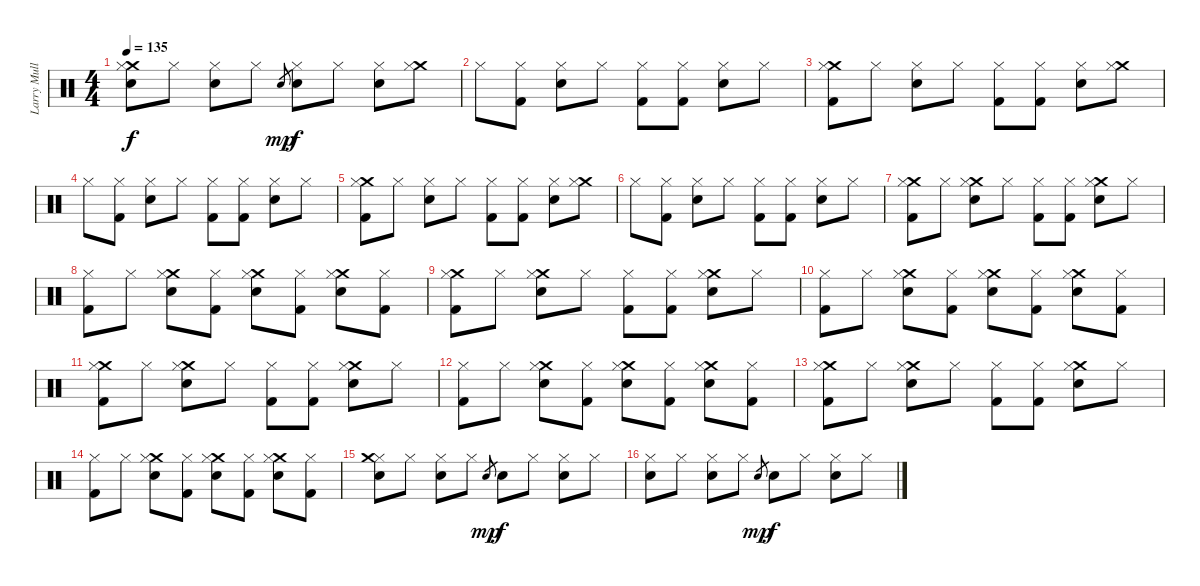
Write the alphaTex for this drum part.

\track ("Larry Mullen Jr." "Larry Mull") {instrument percussion}
\staff {score}
\articulation defaults
\ts (4 4)
\tempo 135
\clef neutral
\ks c
("Electric Snare (hit)" "Crash medium (hit)" "Hi-Hat (closed)").8{dy f} "Hi-Hat (closed)".8 ("Electric Snare (hit)" "Hi-Hat (closed)").8 "Hi-Hat (closed)".8 "Electric Snare (hit)".8{gr dy mp} ("Electric Snare (hit)" "Hi-Hat (closed)").8{dy f} "Hi-Hat (closed)".8 ("Electric Snare (hit)" "Hi-Hat (closed)").8 ("Crash medium (hit)" "Hi-Hat (closed)").8 |
"Hi-Hat (closed)".8 ("Kick (hit) 2" "Hi-Hat (closed)").8 ("Electric Snare (hit)" "Hi-Hat (closed)").8 "Hi-Hat (closed)".8 ("Kick (hit) 2" "Hi-Hat (closed)").8 ("Kick (hit) 2" "Hi-Hat (closed)").8 ("Electric Snare (hit)" "Hi-Hat (closed)").8 "Hi-Hat (closed)".8 |
("Kick (hit) 2" "Crash medium (hit)" "Hi-Hat (closed)").8 "Hi-Hat (closed)".8 ("Electric Snare (hit)" "Hi-Hat (closed)").8 "Hi-Hat (closed)".8 ("Kick (hit) 2" "Hi-Hat (closed)").8 ("Kick (hit) 2" "Hi-Hat (closed)").8 ("Electric Snare (hit)" "Hi-Hat (closed)").8 ("Crash medium (hit)" "Hi-Hat (closed)").8 |
"Hi-Hat (closed)".8 ("Kick (hit) 2" "Hi-Hat (closed)").8 ("Electric Snare (hit)" "Hi-Hat (closed)").8 "Hi-Hat (closed)".8 ("Kick (hit) 2" "Hi-Hat (closed)").8 ("Kick (hit) 2" "Hi-Hat (closed)").8 ("Electric Snare (hit)" "Hi-Hat (closed)").8 "Hi-Hat (closed)".8 |
("Kick (hit) 2" "Crash medium (hit)" "Hi-Hat (closed)").8 "Hi-Hat (closed)".8 ("Electric Snare (hit)" "Hi-Hat (closed)").8 "Hi-Hat (closed)".8 ("Kick (hit) 2" "Hi-Hat (closed)").8 ("Kick (hit) 2" "Hi-Hat (closed)").8 ("Electric Snare (hit)" "Hi-Hat (closed)").8 ("Crash medium (hit)" "Hi-Hat (closed)").8 |
"Hi-Hat (closed)".8 ("Kick (hit) 2" "Hi-Hat (closed)").8 ("Electric Snare (hit)" "Hi-Hat (closed)").8 "Hi-Hat (closed)".8 ("Kick (hit) 2" "Hi-Hat (closed)").8 ("Kick (hit) 2" "Hi-Hat (closed)").8 ("Electric Snare (hit)" "Hi-Hat (closed)").8 "Hi-Hat (closed)".8 |
("Kick (hit) 2" "Crash medium (hit)" "Hi-Hat (closed)").8 "Hi-Hat (closed)".8 ("Electric Snare (hit)" "Crash medium (hit)" "Hi-Hat (closed)").8 "Hi-Hat (closed)".8 ("Kick (hit) 2" "Hi-Hat (closed)").8 ("Kick (hit) 2" "Hi-Hat (closed)").8 ("Electric Snare (hit)" "Crash medium (hit)" "Hi-Hat (closed)").8 "Hi-Hat (closed)".8 |
("Kick (hit) 2" "Hi-Hat (closed)").8 "Hi-Hat (closed)".8 ("Electric Snare (hit)" "Crash medium (hit)" "Hi-Hat (closed)").8 ("Kick (hit) 2" "Hi-Hat (closed)").8 ("Electric Snare (hit)" "Crash medium (hit)" "Hi-Hat (closed)").8 ("Kick (hit) 2" "Hi-Hat (closed)").8 ("Electric Snare (hit)" "Crash medium (hit)" "Hi-Hat (closed)").8 ("Kick (hit) 2" "Hi-Hat (closed)").8 |
("Kick (hit) 2" "Crash medium (hit)" "Hi-Hat (closed)").8 "Hi-Hat (closed)".8 ("Electric Snare (hit)" "Crash medium (hit)" "Hi-Hat (closed)").8 "Hi-Hat (closed)".8 ("Kick (hit) 2" "Hi-Hat (closed)").8 ("Kick (hit) 2" "Hi-Hat (closed)").8 ("Electric Snare (hit)" "Crash medium (hit)" "Hi-Hat (closed)").8 "Hi-Hat (closed)".8 |
("Kick (hit) 2" "Hi-Hat (closed)").8 "Hi-Hat (closed)".8 ("Electric Snare (hit)" "Crash medium (hit)" "Hi-Hat (closed)").8 ("Kick (hit) 2" "Hi-Hat (closed)").8 ("Electric Snare (hit)" "Crash medium (hit)" "Hi-Hat (closed)").8 ("Kick (hit) 2" "Hi-Hat (closed)").8 ("Electric Snare (hit)" "Crash medium (hit)" "Hi-Hat (closed)").8 ("Kick (hit) 2" "Hi-Hat (closed)").8 |
("Kick (hit) 2" "Crash medium (hit)" "Hi-Hat (closed)").8 "Hi-Hat (closed)".8 ("Electric Snare (hit)" "Crash medium (hit)" "Hi-Hat (closed)").8 "Hi-Hat (closed)".8 ("Kick (hit) 2" "Hi-Hat (closed)").8 ("Kick (hit) 2" "Hi-Hat (closed)").8 ("Electric Snare (hit)" "Crash medium (hit)" "Hi-Hat (closed)").8 "Hi-Hat (closed)".8 |
("Kick (hit) 2" "Hi-Hat (closed)").8 "Hi-Hat (closed)".8 ("Electric Snare (hit)" "Crash medium (hit)" "Hi-Hat (closed)").8 ("Kick (hit) 2" "Hi-Hat (closed)").8 ("Electric Snare (hit)" "Crash medium (hit)" "Hi-Hat (closed)").8 ("Kick (hit) 2" "Hi-Hat (closed)").8 ("Electric Snare (hit)" "Crash medium (hit)" "Hi-Hat (closed)").8 ("Kick (hit) 2" "Hi-Hat (closed)").8 |
("Kick (hit) 2" "Crash medium (hit)" "Hi-Hat (closed)").8 "Hi-Hat (closed)".8 ("Electric Snare (hit)" "Crash medium (hit)" "Hi-Hat (closed)").8 "Hi-Hat (closed)".8 ("Kick (hit) 2" "Hi-Hat (closed)").8 ("Kick (hit) 2" "Hi-Hat (closed)").8 ("Electric Snare (hit)" "Crash medium (hit)" "Hi-Hat (closed)").8 "Hi-Hat (closed)".8 |
("Kick (hit) 2" "Hi-Hat (closed)").8 "Hi-Hat (closed)".8 ("Electric Snare (hit)" "Crash medium (hit)" "Hi-Hat (closed)").8 ("Kick (hit) 2" "Hi-Hat (closed)").8 ("Electric Snare (hit)" "Crash medium (hit)" "Hi-Hat (closed)").8 ("Kick (hit) 2" "Hi-Hat (closed)").8 ("Electric Snare (hit)" "Crash medium (hit)" "Hi-Hat (closed)").8 ("Kick (hit) 2" "Hi-Hat (closed)").8 |
("Electric Snare (hit)" "Hi-Hat (closed)" "Crash medium (hit)").8 "Hi-Hat (closed)".8 ("Electric Snare (hit)" "Hi-Hat (closed)").8 "Hi-Hat (closed)".8 "Electric Snare (hit)".8{gr dy mp} "Electric Snare (hit)".8{dy f} "Hi-Hat (closed)".8 ("Electric Snare (hit)" "Hi-Hat (closed)").8 "Hi-Hat (closed)".8 |
("Electric Snare (hit)" "Hi-Hat (closed)").8 "Hi-Hat (closed)".8 ("Electric Snare (hit)" "Hi-Hat (closed)").8 "Hi-Hat (closed)".8 "Electric Snare (hit)".8{gr dy mp} "Electric Snare (hit)".8{dy f} "Hi-Hat (closed)".8 ("Electric Snare (hit)" "Hi-Hat (closed)").8 "Hi-Hat (closed)".8
